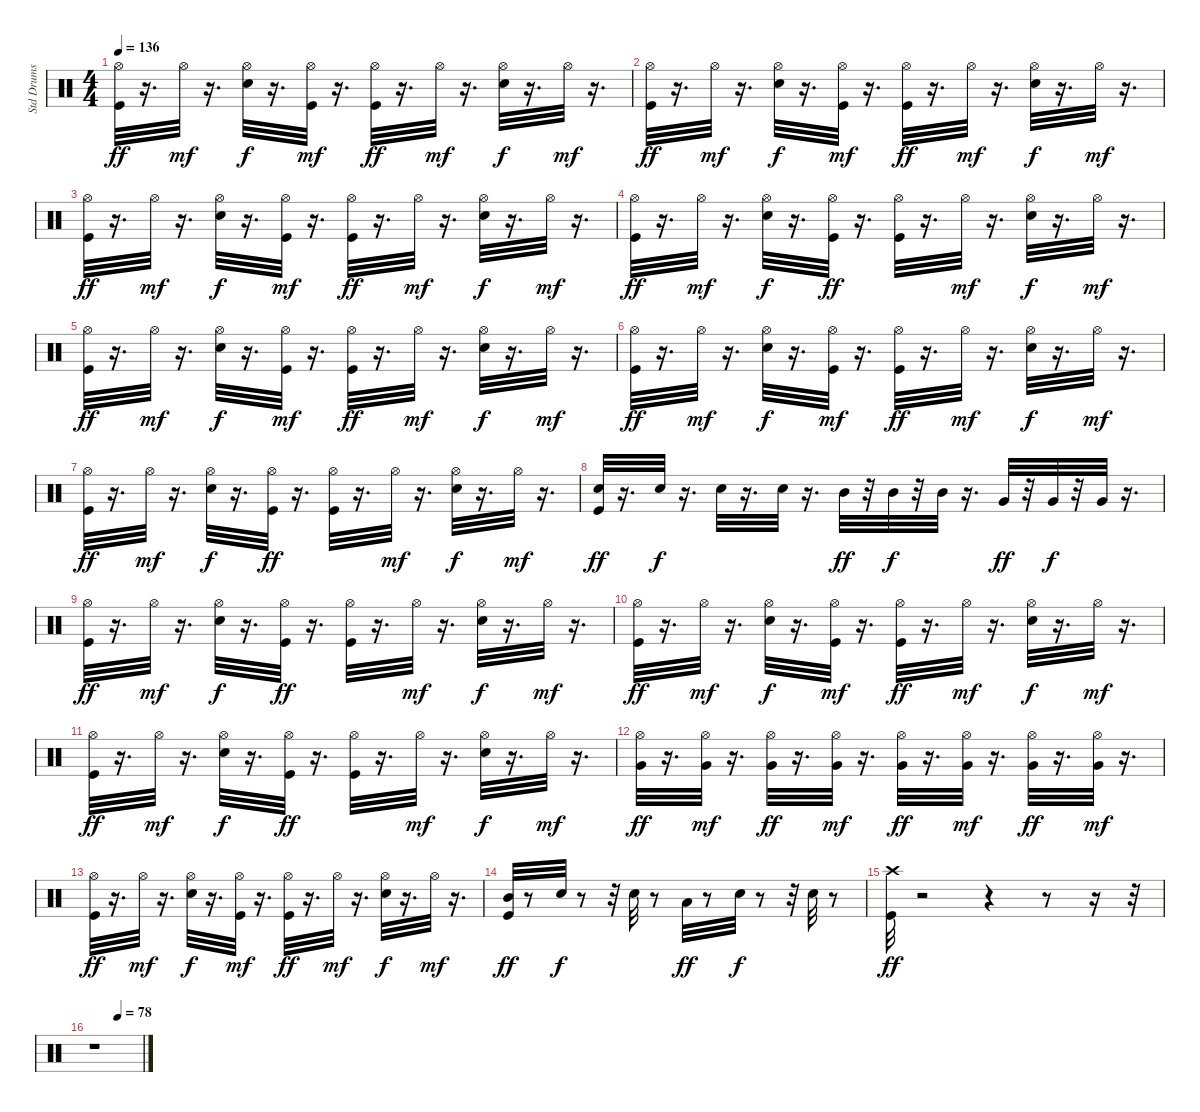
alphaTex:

\track ("Std Drums" "Std Drums") {instrument percussion}
\staff {score}
\articulation defaults
\ts (4 4)
\tempo 136
\clef neutral
\ks c
("Hi-Hat (open)" "Kick (hit)").32{dy ff} r.16{d} "Hi-Hat (open)".32{dy mf} r.16{d} ("Snare (hit) 2" "Hi-Hat (open)").32{dy f} r.16{d} ("Kick (hit)" "Hi-Hat (open)").32{dy mf} r.16{d} ("Kick (hit)" "Hi-Hat (open)").32{dy ff} r.16{d} "Hi-Hat (open)".32{dy mf} r.16{d} ("Hi-Hat (open)" "Snare (hit) 2").32{dy f} r.16{d} "Hi-Hat (open)".32{dy mf} r.16{d} |
("Hi-Hat (open)" "Kick (hit)").32{dy ff} r.16{d} "Hi-Hat (open)".32{dy mf} r.16{d} ("Hi-Hat (open)" "Snare (hit) 2").32{dy f} r.16{d} ("Kick (hit)" "Hi-Hat (open)").32{dy mf} r.16{d} ("Hi-Hat (open)" "Kick (hit)").32{dy ff} r.16{d} "Hi-Hat (open)".32{dy mf} r.16{d} ("Snare (hit) 2" "Hi-Hat (open)").32{dy f} r.16{d} "Hi-Hat (open)".32{dy mf} r.16{d} |
("Kick (hit)" "Hi-Hat (open)").32{dy ff} r.16{d} "Hi-Hat (open)".32{dy mf} r.16{d} ("Hi-Hat (open)" "Snare (hit) 2").32{dy f} r.16{d} ("Kick (hit)" "Hi-Hat (open)").32{dy mf} r.16{d} ("Kick (hit)" "Hi-Hat (open)").32{dy ff} r.16{d} "Hi-Hat (open)".32{dy mf} r.16{d} ("Snare (hit) 2" "Hi-Hat (open)").32{dy f} r.16{d} "Hi-Hat (open)".32{dy mf} r.16{d} |
("Hi-Hat (open)" "Kick (hit)").32{dy ff} r.16{d} "Hi-Hat (open)".32{dy mf} r.16{d} ("Hi-Hat (open)" "Snare (hit) 2").32{dy f} r.16{d} ("Hi-Hat (open)" "Kick (hit)").32{dy ff} r.16{d} ("Kick (hit)" "Hi-Hat (open)").32 r.16{d} "Hi-Hat (open)".32{dy mf} r.16{d} ("Snare (hit) 2" "Hi-Hat (open)").32{dy f} r.16{d} "Hi-Hat (open)".32{dy mf} r.16{d} |
("Hi-Hat (open)" "Kick (hit)").32{dy ff} r.16{d} "Hi-Hat (open)".32{dy mf} r.16{d} ("Snare (hit) 2" "Hi-Hat (open)").32{dy f} r.16{d} ("Kick (hit)" "Hi-Hat (open)").32{dy mf} r.16{d} ("Kick (hit)" "Hi-Hat (open)").32{dy ff} r.16{d} "Hi-Hat (open)".32{dy mf} r.16{d} ("Snare (hit) 2" "Hi-Hat (open)").32{dy f} r.16{d} "Hi-Hat (open)".32{dy mf} r.16{d} |
("Hi-Hat (open)" "Kick (hit)").32{dy ff} r.16{d} "Hi-Hat (open)".32{dy mf} r.16{d} ("Hi-Hat (open)" "Snare (hit) 2").32{dy f} r.16{d} ("Kick (hit)" "Hi-Hat (open)").32{dy mf} r.16{d} ("Hi-Hat (open)" "Kick (hit)").32{dy ff} r.16{d} "Hi-Hat (open)".32{dy mf} r.16{d} ("Hi-Hat (open)" "Snare (hit) 2").32{dy f} r.16{d} "Hi-Hat (open)".32{dy mf} r.16{d} |
("Kick (hit)" "Hi-Hat (open)").32{dy ff} r.16{d} "Hi-Hat (open)".32{dy mf} r.16{d} ("Snare (hit) 2" "Hi-Hat (open)").32{dy f} r.16{d} ("Hi-Hat (open)" "Kick (hit)").32{dy ff} r.16{d} ("Hi-Hat (open)" "Kick (hit)").32 r.16{d} "Hi-Hat (open)".32{dy mf} r.16{d} ("Hi-Hat (open)" "Snare (hit) 2").32{dy f} r.16{d} "Hi-Hat (open)".32{dy mf} r.16{d} |
("Kick (hit)" "Snare (hit) 2").32{dy ff} r.16{d} "Snare (hit) 2".32{dy f} r.16{d} "Snare (hit) 2".32 r.16{d} "Snare (hit) 2".32 r.16{d} "Mid Tom (hit)".32{dy ff} r.32 "Mid Tom (hit)".32{dy f} r.32 "Mid Tom (hit)".32 r.16{d} "Very Low Tom (hit)".32{dy ff} r.32 "Very Low Tom (hit)".32{dy f} r.32 "Very Low Tom (hit)".32 r.16{d} |
("Kick (hit)" "Hi-Hat (open)").32{dy ff} r.16{d} "Hi-Hat (open)".32{dy mf} r.16{d} ("Hi-Hat (open)" "Snare (hit) 2").32{dy f} r.16{d} ("Hi-Hat (open)" "Kick (hit)").32{dy ff} r.16{d} ("Kick (hit)" "Hi-Hat (open)").32 r.16{d} "Hi-Hat (open)".32{dy mf} r.16{d} ("Hi-Hat (open)" "Snare (hit) 2").32{dy f} r.16{d} "Hi-Hat (open)".32{dy mf} r.16{d} |
("Hi-Hat (open)" "Kick (hit)").32{dy ff} r.16{d} "Hi-Hat (open)".32{dy mf} r.16{d} ("Hi-Hat (open)" "Snare (hit) 2").32{dy f} r.16{d} ("Kick (hit)" "Hi-Hat (open)").32{dy mf} r.16{d} ("Kick (hit)" "Hi-Hat (open)").32{dy ff} r.16{d} "Hi-Hat (open)".32{dy mf} r.16{d} ("Snare (hit) 2" "Hi-Hat (open)").32{dy f} r.16{d} "Hi-Hat (open)".32{dy mf} r.16{d} |
("Hi-Hat (open)" "Kick (hit)").32{dy ff} r.16{d} "Hi-Hat (open)".32{dy mf} r.16{d} ("Snare (hit) 2" "Hi-Hat (open)").32{dy f} r.16{d} ("Hi-Hat (open)" "Kick (hit)").32{dy ff} r.16{d} ("Kick (hit)" "Hi-Hat (open)").32 r.16{d} "Hi-Hat (open)".32{dy mf} r.16{d} ("Hi-Hat (open)" "Snare (hit) 2").32{dy f} r.16{d} "Hi-Hat (open)".32{dy mf} r.16{d} |
("Very Low Tom (hit)" "Hi-Hat (open)").32{dy ff} r.16{d} ("Hi-Hat (open)" "Very Low Tom (hit)").32{dy mf} r.16{d} ("Very Low Tom (hit)" "Hi-Hat (open)").32{dy ff} r.16{d} ("Hi-Hat (open)" "Very Low Tom (hit)").32{dy mf} r.16{d} ("Very Low Tom (hit)" "Hi-Hat (open)").32{dy ff} r.16{d} ("Hi-Hat (open)" "Very Low Tom (hit)").32{dy mf} r.16{d} ("Very Low Tom (hit)" "Hi-Hat (open)").32{dy ff} r.16{d} ("Very Low Tom (hit)" "Hi-Hat (open)").32{dy mf} r.16{d} |
("Kick (hit)" "Hi-Hat (open)").32{dy ff} r.16{d} "Hi-Hat (open)".32{dy mf} r.16{d} ("Hi-Hat (open)" "Snare (hit) 2").32{dy f} r.16{d} ("Kick (hit)" "Hi-Hat (open)").32{dy mf} r.16{d} ("Hi-Hat (open)" "Kick (hit)").32{dy ff} r.16{d} "Hi-Hat (open)".32{dy mf} r.16{d} ("Hi-Hat (open)" "Snare (hit) 2").32{dy f} r.16{d} "Hi-Hat (open)".32{dy mf} r.16{d} |
("Kick (hit)" "Mid Tom (hit)").32{dy ff} r.8 "Snare (hit) 2".32{dy f} r.8 r.32 "Snare (hit) 2".32 r.8 "Low Tom (hit)".32{dy ff} r.8 "Snare (hit) 2".32{dy f} r.8 r.32 "Snare (hit) 2".32 r.8 |
("Kick (hit)" "Crash high (hit)").32{dy ff} r.2 r.4 r.8 r.16 r.32 |
\tempo (78 0.5)
r.1
